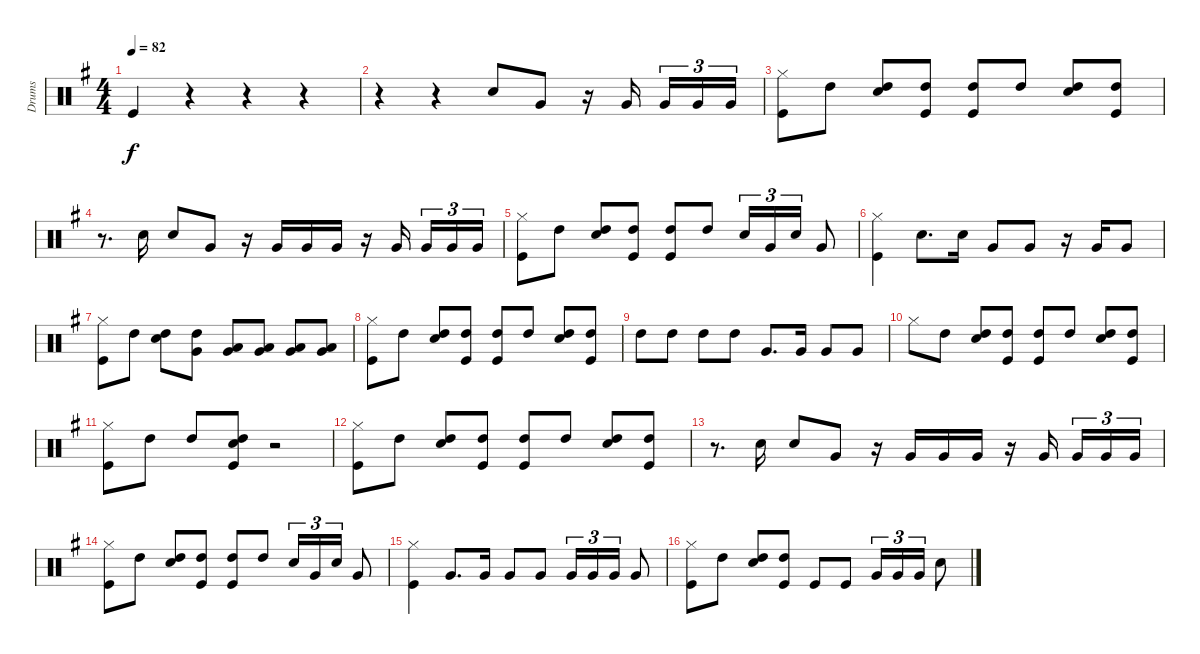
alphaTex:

\track ("Drums" "Drums") {instrument percussion}
\staff {score}
\articulation defaults
\ts (4 4)
\tempo 82
\clef neutral
\ks g "Kick (hit)".4{dy f}
r.4 r.4 r.4 |
r.4 r.4 "Snare (hit) 2".8 "Very Low Tom (hit)".8 r.16 "Very Low Tom (hit)".16{beam splitsecondary} "Very Low Tom (hit)".16{tu (3 2)} "Very Low Tom (hit)".16{tu (3 2)} "Very Low Tom (hit)".16{tu (3 2)} |
("Hi-Hat (closed)" "Kick (hit)").8 "High Tom (hit)".8 ("High Tom (hit)" "Snare (hit) 2").8 ("High Tom (hit)" "Kick (hit)").8 ("High Tom (hit)" "Kick (hit)").8 "High Tom (hit)".8 ("High Tom (hit)" "Snare (hit) 2").8 ("High Tom (hit)" "Kick (hit)").8 |
r.8{d} "Snare (hit) 2".16 "Snare (hit) 2".8 "Very Low Tom (hit)".8 r.16 "Very Low Tom (hit)".16 "Very Low Tom (hit)".16 "Very Low Tom (hit)".16 r.16 "Very Low Tom (hit)".16{beam splitsecondary} "Very Low Tom (hit)".16{tu (3 2)} "Very Low Tom (hit)".16{tu (3 2)} "Very Low Tom (hit)".16{tu (3 2)} |
("Hi-Hat (closed)" "Kick (hit)").8 "High Tom (hit)".8 ("High Tom (hit)" "Snare (hit) 2").8 ("High Tom (hit)" "Kick (hit)").8 ("High Tom (hit)" "Kick (hit)").8 "High Tom (hit)".8 "Snare (hit) 2".16{tu (3 2)} "Very Low Tom (hit)".16{tu (3 2)} "Snare (hit) 2".16{tu (3 2)} "Very Low Tom (hit)".8 |
("Hi-Hat (closed)" "Kick (hit)").4 "Snare (hit) 2".8{d} "Snare (hit) 2".16 "Very Low Tom (hit)".8 "Very Low Tom (hit)".8 r.16 "Very Low Tom (hit)".16 "Very Low Tom (hit)".8 |
("Hi-Hat (closed)" "Kick (hit)").8 "High Tom (hit)".8 ("High Tom (hit)" "Snare (hit) 2").8 ("High Tom (hit)" "Very Low Tom (hit)").8 ("Low Tom (hit)" "Very Low Tom (hit)").8 ("Low Tom (hit)" "Very Low Tom (hit)").8 ("Low Tom (hit)" "Very Low Tom (hit)").8 ("Low Tom (hit)" "Very Low Tom (hit)").8 |
("Hi-Hat (closed)" "Kick (hit)").8 "High Tom (hit)".8 ("High Tom (hit)" "Snare (hit) 2").8 ("High Tom (hit)" "Kick (hit)").8 ("High Tom (hit)" "Kick (hit)").8 "High Tom (hit)".8 ("High Tom (hit)" "Snare (hit) 2").8 ("High Tom (hit)" "Kick (hit)").8 |
"High Tom (hit)".8 "High Tom (hit)".8 "High Tom (hit)".8 "High Tom (hit)".8 "Very Low Tom (hit)".8{d} "Very Low Tom (hit)".16 "Very Low Tom (hit)".8 "Very Low Tom (hit)".8 |
"Hi-Hat (closed)".8 "High Tom (hit)".8 ("High Tom (hit)" "Snare (hit) 2").8 ("High Tom (hit)" "Kick (hit)").8 ("High Tom (hit)" "Kick (hit)").8 "High Tom (hit)".8 ("High Tom (hit)" "Snare (hit) 2").8 ("High Tom (hit)" "Kick (hit)").8 |
("Hi-Hat (closed)" "Kick (hit)").8 "High Tom (hit)".8 "High Tom (hit)".8 ("High Tom (hit)" "Kick (hit)" "Snare (hit) 2").8 r.2 |
("Hi-Hat (closed)" "Kick (hit)").8 "High Tom (hit)".8 ("High Tom (hit)" "Snare (hit) 2").8 ("High Tom (hit)" "Kick (hit)").8 ("High Tom (hit)" "Kick (hit)").8 "High Tom (hit)".8 ("High Tom (hit)" "Snare (hit) 2").8 ("High Tom (hit)" "Kick (hit)").8 |
r.8{d} "Snare (hit) 2".16 "Snare (hit) 2".8 "Very Low Tom (hit)".8 r.16 "Very Low Tom (hit)".16 "Very Low Tom (hit)".16 "Very Low Tom (hit)".16 r.16 "Very Low Tom (hit)".16{beam splitsecondary} "Very Low Tom (hit)".16{tu (3 2)} "Very Low Tom (hit)".16{tu (3 2)} "Very Low Tom (hit)".16{tu (3 2)} |
("Hi-Hat (closed)" "Kick (hit)").8 "High Tom (hit)".8 ("High Tom (hit)" "Snare (hit) 2").8 ("High Tom (hit)" "Kick (hit)").8 ("High Tom (hit)" "Kick (hit)").8 "High Tom (hit)".8 "Snare (hit) 2".16{tu (3 2)} "Very Low Tom (hit)".16{tu (3 2)} "Snare (hit) 2".16{tu (3 2)} "Very Low Tom (hit)".8 |
("Hi-Hat (closed)" "Kick (hit)").4 "Very Low Tom (hit)".8{d} "Very Low Tom (hit)".16 "Very Low Tom (hit)".8 "Very Low Tom (hit)".8 "Very Low Tom (hit)".16{tu (3 2)} "Very Low Tom (hit)".16{tu (3 2)} "Very Low Tom (hit)".16{tu (3 2)} "Very Low Tom (hit)".8 |
("Hi-Hat (closed)" "Kick (hit)").8 "High Tom (hit)".8 ("High Tom (hit)" "Snare (hit) 2").8 ("High Tom (hit)" "Kick (hit)").8 "Kick (hit)".8 "Kick (hit)".8 "Very Low Tom (hit)".16{tu (3 2)} "Very Low Tom (hit)".16{tu (3 2)} "Very Low Tom (hit)".16{tu (3 2)} "Snare (hit) 2".8
